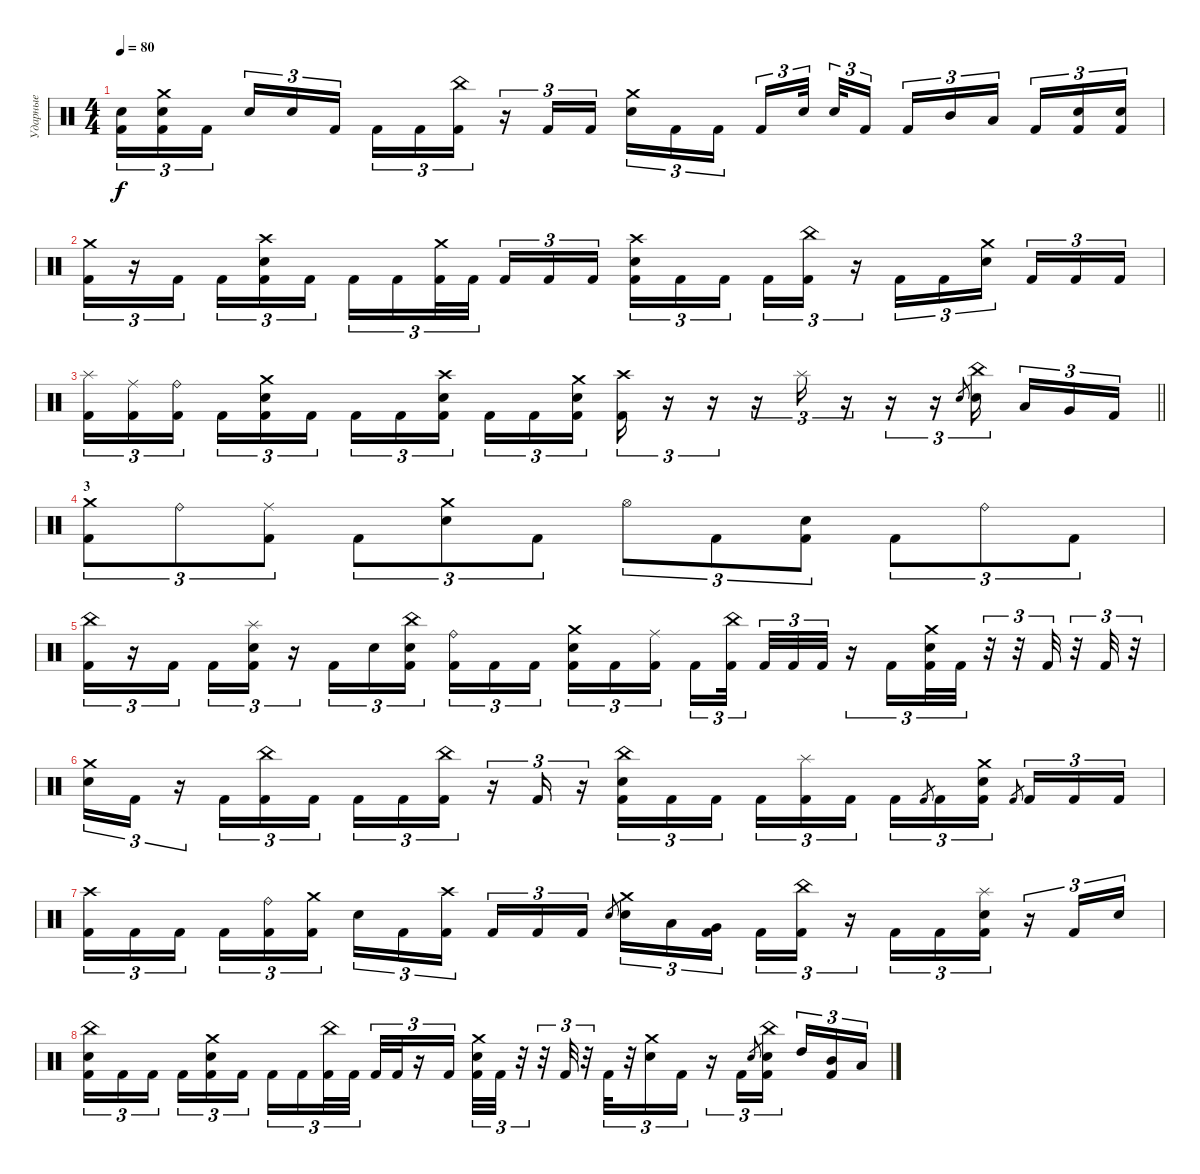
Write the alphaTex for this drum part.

\track ("Ударные" "Ударные") {instrument percussion}
\staff {score}
\articulation defaults
\ts (4 4)
\tempo 80
\clef neutral
\ks c
("Electric Snare (hit)" "Kick (hit) 2").16{tu (3 2) dy f} ("Crash medium (hit)" "Electric Snare (hit)" "Kick (hit) 2").16{tu (3 2)} "Kick (hit) 2".16{tu (3 2) beam splitsecondary} "Electric Snare (hit)".16{tu (3 2)} "Electric Snare (hit)".16{tu (3 2)} "Kick (hit) 2".16{tu (3 2)} "Kick (hit) 2".16{tu (3 2)} "Kick (hit) 2".16{tu (3 2)} ("China (hit)" "Kick (hit) 2").16{tu (3 2)} r.16{tu (3 2)} "Kick (hit) 2".16{tu (3 2)} "Kick (hit) 2".16{tu (3 2)} ("Crash medium (hit)" "Electric Snare (hit)").16{tu (3 2)} "Kick (hit) 2".16{tu (3 2)} "Kick (hit) 2".16{tu (3 2) beam splitsecondary} "Kick (hit) 2".16{tu (3 2)} "Electric Snare (hit)".32{tu (3 2) beam splitsecondary} "Electric Snare (hit)".32{tu (3 2)} "Kick (hit) 2".16{tu (3 2)} "Kick (hit) 2".16{tu (3 2)} "Mid Tom (hit)".16{tu (3 2)} "Low Tom (hit)".16{tu (3 2) beam splitsecondary} "Kick (hit) 2".16{tu (3 2)} ("Electric Snare (hit)" "Kick (hit) 2").16{tu (3 2)} ("Electric Snare (hit)" "Kick (hit) 2").16{tu (3 2)} |
("Crash medium (hit)" "Kick (hit) 2").16{tu (3 2)} r.16{tu (3 2)} "Kick (hit) 2".16{tu (3 2) beam splitsecondary} "Kick (hit) 2".16{tu (3 2)} ("Crash high (hit)" "Electric Snare (hit)" "Kick (hit) 2").16{tu (3 2)} "Kick (hit) 2".16{tu (3 2)} "Kick (hit) 2".16{tu (3 2)} "Kick (hit) 2".16{tu (3 2)} ("Crash medium (hit)" "Kick (hit) 2").32{tu (3 2)} "Kick (hit) 2".32{tu (3 2) beam splitsecondary} "Kick (hit) 2".16{tu (3 2)} "Kick (hit) 2".16{tu (3 2)} "Kick (hit) 2".16{tu (3 2)} ("Crash high (hit)" "Electric Snare (hit)" "Kick (hit) 2").16{tu (3 2)} "Kick (hit) 2".16{tu (3 2)} "Kick (hit) 2".16{tu (3 2) beam splitsecondary} "Kick (hit) 2".16{tu (3 2)} ("China (hit)" "Kick (hit) 2").16{tu (3 2)} r.16{tu (3 2)} "Kick (hit) 2".16{tu (3 2)} "Kick (hit) 2".16{tu (3 2)} ("Crash medium (hit)" "Electric Snare (hit)").16{tu (3 2) beam splitsecondary} "Kick (hit) 2".16{tu (3 2)} "Kick (hit) 2".16{tu (3 2)} "Kick (hit) 2".16{tu (3 2)} |
\barLineRight lightlight
("Splash (hit)" "Kick (hit) 2").16{tu (3 2)} ("Ride (middle)" "Kick (hit) 2").16{tu (3 2)} ("Ride (bell)" "Kick (hit) 2").16{tu (3 2) beam splitsecondary} "Kick (hit) 2".16{tu (3 2)} ("Crash medium (hit)" "Electric Snare (hit)" "Kick (hit) 2").16{tu (3 2)} "Kick (hit) 2".16{tu (3 2)} "Kick (hit) 2".16{tu (3 2)} "Kick (hit) 2".16{tu (3 2)} ("Crash high (hit)" "Electric Snare (hit)" "Kick (hit) 2").16{tu (3 2) beam splitsecondary} "Kick (hit) 2".16{tu (3 2)} "Kick (hit) 2".16{tu (3 2)} ("Crash medium (hit)" "Electric Snare (hit)" "Kick (hit) 2").16{tu (3 2)} ("Crash high (hit)" "Kick (hit) 2").16{tu (3 2)} r.16{tu (3 2)} r.16{tu (3 2)} r.16{tu (3 2)} "Splash (hit)".16{tu (3 2)} r.16{tu (3 2)} r.16{tu (3 2)} r.16{tu (3 2)} "Electric Snare (hit)".8{gr} ("China (hit)" "Electric Snare (hit)").16{tu (3 2) beam splitsecondary} "Low Tom (hit)".16{tu (3 2)} "Very Low Tom (hit)".16{tu (3 2)} "Kick (hit) 2".16{tu (3 2)} |
\section ("" "3")
("Crash medium (hit)" "Kick (hit) 2").8{tu (3 2)} "Ride (bell)".8{tu (3 2)} ("Ride (middle)" "Kick (hit) 2").8{tu (3 2)} "Kick (hit) 2".8{tu (3 2)} ("Crash medium (hit)" "Electric Snare (hit)").8{tu (3 2)} "Kick (hit) 2".8{tu (3 2)} "Hi-Hat (open)".8{tu (3 2)} "Kick (hit) 2".8{tu (3 2)} ("Electric Snare (hit)" "Kick (hit) 2").8{tu (3 2)} "Kick (hit) 2".8{tu (3 2)} "Ride (bell)".8{tu (3 2)} "Kick (hit) 2".8{tu (3 2)} |
("China (hit)" "Kick (hit) 2").16{tu (3 2)} r.16{tu (3 2)} "Kick (hit) 2".16{tu (3 2) beam splitsecondary} "Kick (hit) 2".16{tu (3 2)} ("Splash (hit)" "Electric Snare (hit)" "Kick (hit) 2").16{tu (3 2)} r.16{tu (3 2)} "Kick (hit) 2".16{tu (3 2)} "Electric Snare (hit)".16{tu (3 2)} ("China (hit)" "Electric Snare (hit)" "Kick (hit) 2").16{tu (3 2) beam splitsecondary} ("Ride (bell)" "Kick (hit) 2").16{tu (3 2)} "Kick (hit) 2".16{tu (3 2)} "Kick (hit) 2".16{tu (3 2)} ("Crash medium (hit)" "Electric Snare (hit)" "Kick (hit) 2").16{tu (3 2)} "Kick (hit) 2".16{tu (3 2)} ("Ride (middle)" "Kick (hit) 2").16{tu (3 2) beam splitsecondary} "Kick (hit) 2".16{tu (3 2)} ("China (hit)" "Kick (hit) 2").32{tu (3 2) beam splitsecondary} "Kick (hit) 2".32{tu (3 2)} "Kick (hit) 2".32{tu (3 2)} "Kick (hit) 2".32{tu (3 2)} r.16{tu (3 2)} "Kick (hit) 2".16{tu (3 2)} ("Crash medium (hit)" "Electric Snare (hit)" "Kick (hit) 2").32{tu (3 2)} "Kick (hit) 2".32{tu (3 2)} r.32{tu (3 2)} r.32{tu (3 2)} "Kick (hit) 2".32{tu (3 2)} r.32{tu (3 2)} "Kick (hit) 2".32{tu (3 2)} r.32{tu (3 2)} |
("Crash medium (hit)" "Electric Snare (hit)").16{tu (3 2)} "Kick (hit) 2".16{tu (3 2)} r.16{tu (3 2)} "Kick (hit) 2".16{tu (3 2)} ("China (hit)" "Kick (hit) 2").16{tu (3 2)} "Kick (hit) 2".16{tu (3 2)} "Kick (hit) 2".16{tu (3 2)} "Kick (hit) 2".16{tu (3 2)} ("China (hit)" "Kick (hit) 2").16{tu (3 2)} r.16{tu (3 2)} "Kick (hit) 2".16{tu (3 2)} r.16{tu (3 2)} ("China (hit)" "Electric Snare (hit)" "Kick (hit) 2").16{tu (3 2)} "Kick (hit) 2".16{tu (3 2)} "Kick (hit) 2".16{tu (3 2) beam splitsecondary} "Kick (hit) 2".16{tu (3 2)} ("Splash (hit)" "Kick (hit) 2").16{tu (3 2)} "Kick (hit) 2".16{tu (3 2)} "Kick (hit) 2".16{tu (3 2)} "Kick (hit) 2".8{gr} "Kick (hit) 2".16{tu (3 2)} ("Crash medium (hit)" "Electric Snare (hit)" "Kick (hit) 2").16{tu (3 2)} "Kick (hit) 2".8{gr beam splitsecondary} "Kick (hit) 2".16{tu (3 2)} "Kick (hit) 2".16{tu (3 2)} "Kick (hit) 2".16{tu (3 2)} |
("Crash high (hit)" "Kick (hit) 2").16{tu (3 2)} "Kick (hit) 2".16{tu (3 2)} "Kick (hit) 2".16{tu (3 2) beam splitsecondary} "Kick (hit) 2".16{tu (3 2)} ("Ride (bell)" "Kick (hit) 2").16{tu (3 2)} ("Crash medium (hit)" "Kick (hit) 2").16{tu (3 2)} "Electric Snare (hit)".16{tu (3 2)} "Kick (hit) 2".16{tu (3 2)} ("Crash high (hit)" "Kick (hit) 2").16{tu (3 2) beam splitsecondary} "Kick (hit) 2".16{tu (3 2)} "Kick (hit) 2".16{tu (3 2)} "Kick (hit) 2".16{tu (3 2)} "Electric Snare (hit)".8{gr} ("Crash medium (hit)" "Electric Snare (hit)").16{tu (3 2)} "Low Tom (hit)".16{tu (3 2)} ("Very Low Tom (hit)" "Kick (hit) 2").16{tu (3 2) beam splitsecondary} "Kick (hit) 2".16{tu (3 2)} ("China (hit)" "Kick (hit) 2").16{tu (3 2)} r.16{tu (3 2)} "Kick (hit) 2".16{tu (3 2)} "Kick (hit) 2".16{tu (3 2)} ("Splash (hit)" "Electric Snare (hit)" "Kick (hit) 2").16{tu (3 2)} r.16{tu (3 2)} "Kick (hit) 2".16{tu (3 2)} "Electric Snare (hit)".16{tu (3 2)} |
("China (hit)" "Electric Snare (hit)" "Kick (hit) 2").16{tu (3 2)} "Kick (hit) 2".16{tu (3 2)} "Kick (hit) 2".16{tu (3 2) beam splitsecondary} "Kick (hit) 2".16{tu (3 2)} ("Crash medium (hit)" "Electric Snare (hit)" "Kick (hit) 2").16{tu (3 2)} "Kick (hit) 2".16{tu (3 2)} "Kick (hit) 2".16{tu (3 2)} "Kick (hit) 2".16{tu (3 2)} ("China (hit)" "Kick (hit) 2").32{tu (3 2)} "Kick (hit) 2".32{tu (3 2) beam splitsecondary} "Kick (hit) 2".32{tu (3 2)} "Kick (hit) 2".32{tu (3 2)} r.16{tu (3 2)} "Kick (hit) 2".16{tu (3 2)} ("Crash medium (hit)" "Electric Snare (hit)" "Kick (hit) 2").32{tu (3 2)} "Kick (hit) 2".32{tu (3 2)} r.32{tu (3 2)} r.32{tu (3 2)} "Kick (hit) 2".32{tu (3 2)} r.32{tu (3 2)} "Kick (hit) 2".32{tu (3 2)} r.32{tu (3 2)} ("Crash medium (hit)" "Electric Snare (hit)").16{tu (3 2)} "Kick (hit) 2".16{tu (3 2)} r.16{tu (3 2)} "Kick (hit) 2".16{tu (3 2)} "Electric Snare (hit)".8{gr} ("China (hit)" "Electric Snare (hit)" "Kick (hit) 2").16{tu (3 2) beam splitsecondary} "High Tom (hit)".16{tu (3 2)} ("Mid Tom (hit)" "Kick (hit) 2").16{tu (3 2)} "Low Tom (hit)".16{tu (3 2)}
